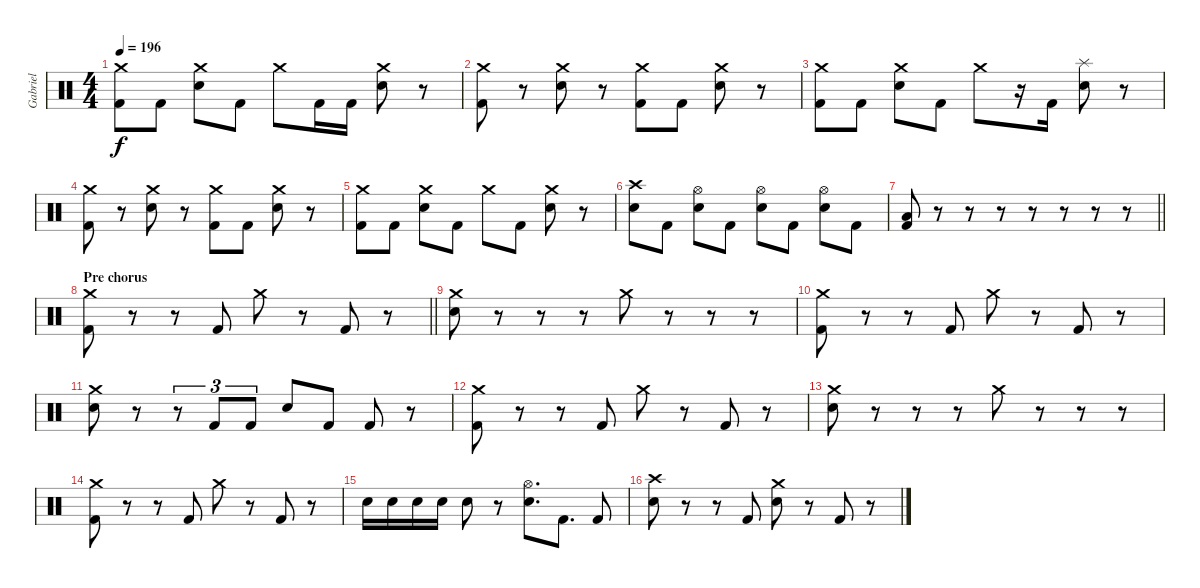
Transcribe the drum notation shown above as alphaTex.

\track ("Gabriel" "Gabriel") {instrument percussion}
\staff {score}
\articulation defaults
\ts (4 4)
\tempo 196
\clef neutral
\ks c
("Crash medium (hit)" "Kick (hit) 2").8{dy f} "Kick (hit) 2".8 ("Crash medium (hit)" "Electric Snare (hit)").8 "Kick (hit) 2".8 "Crash medium (hit)".8 "Kick (hit) 2".16 "Kick (hit) 2".16 ("Crash medium (hit)" "Electric Snare (hit)").8 r.8 |
("Crash medium (hit)" "Kick (hit) 2").8 r.8 ("Crash medium (hit)" "Electric Snare (hit)").8 r.8 ("Crash medium (hit)" "Kick (hit) 2").8 "Kick (hit) 2".8 ("Crash medium (hit)" "Electric Snare (hit)").8 r.8 |
("Crash medium (hit)" "Kick (hit) 2").8 "Kick (hit) 2".8 ("Crash medium (hit)" "Electric Snare (hit)").8 "Kick (hit) 2".8 "Crash medium (hit)".8 r.16 "Kick (hit) 2".16 ("Splash (hit)" "Electric Snare (hit)").8 r.8 |
("Crash medium (hit)" "Kick (hit) 2").8 r.8 ("Crash medium (hit)" "Electric Snare (hit)").8 r.8 ("Crash medium (hit)" "Kick (hit) 2").8 "Kick (hit) 2".8 ("Crash medium (hit)" "Electric Snare (hit)").8 r.8 |
("Crash medium (hit)" "Kick (hit) 2").8 "Kick (hit) 2".8 ("Crash medium (hit)" "Electric Snare (hit)").8 "Kick (hit) 2".8 "Crash medium (hit)".8 "Kick (hit) 2".8 ("Crash medium (hit)" "Electric Snare (hit)").8 r.8 |
("Crash high (hit)" "Electric Snare (hit)").8 "Kick (hit) 2".8 ("Hi-Hat (open)" "Electric Snare (hit)").8 "Kick (hit) 2".8 ("Hi-Hat (open)" "Electric Snare (hit)").8 "Kick (hit) 2".8 ("Hi-Hat (open)" "Electric Snare (hit)").8 "Kick (hit) 2".8 |
\barLineRight lightlight
("Low Tom (hit)" "Kick (hit) 2").8 r.8 r.8 r.8 r.8 r.8 r.8 r.8 |
\section ("" "Pre chorus")
\barLineRight lightlight
("Crash medium (hit)" "Kick (hit) 2").8 r.8 r.8 "Kick (hit) 2".8 "Crash medium (hit)".8 r.8 "Kick (hit) 2".8 r.8 |
("Crash medium (hit)" "Electric Snare (hit)").8 r.8 r.8 r.8 "Crash medium (hit)".8 r.8 r.8 r.8 |
("Crash medium (hit)" "Kick (hit) 2").8 r.8 r.8 "Kick (hit) 2".8 "Crash medium (hit)".8 r.8 "Kick (hit) 2".8 r.8 |
("Crash medium (hit)" "Electric Snare (hit)").8 r.8 r.8{tu (3 2)} "Kick (hit) 2".8{tu (3 2)} "Kick (hit) 2".8{tu (3 2)} "Electric Snare (hit)".8 "Kick (hit) 2".8 "Kick (hit) 2".8 r.8 |
("Crash medium (hit)" "Kick (hit) 2").8 r.8 r.8 "Kick (hit) 2".8 "Crash medium (hit)".8 r.8 "Kick (hit) 2".8 r.8 |
("Crash medium (hit)" "Electric Snare (hit)").8 r.8 r.8 r.8 "Crash medium (hit)".8 r.8 r.8 r.8 |
("Crash medium (hit)" "Kick (hit) 2").8 r.8 r.8 "Kick (hit) 2".8 "Crash medium (hit)".8 r.8 "Kick (hit) 2".8 r.8 |
"Electric Snare (hit)".16 "Electric Snare (hit)".16 "Electric Snare (hit)".16 "Electric Snare (hit)".16 "Electric Snare (hit)".8 r.8 ("Hi-Hat (open)" "Electric Snare (hit)").8{d} "Kick (hit) 2".8{d} "Kick (hit) 2".8 |
("Crash high (hit)" "Electric Snare (hit)").8 r.8 r.8 "Kick (hit) 2".8 ("Crash medium (hit)" "Electric Snare (hit)").8 r.8 "Kick (hit) 2".8 r.8
